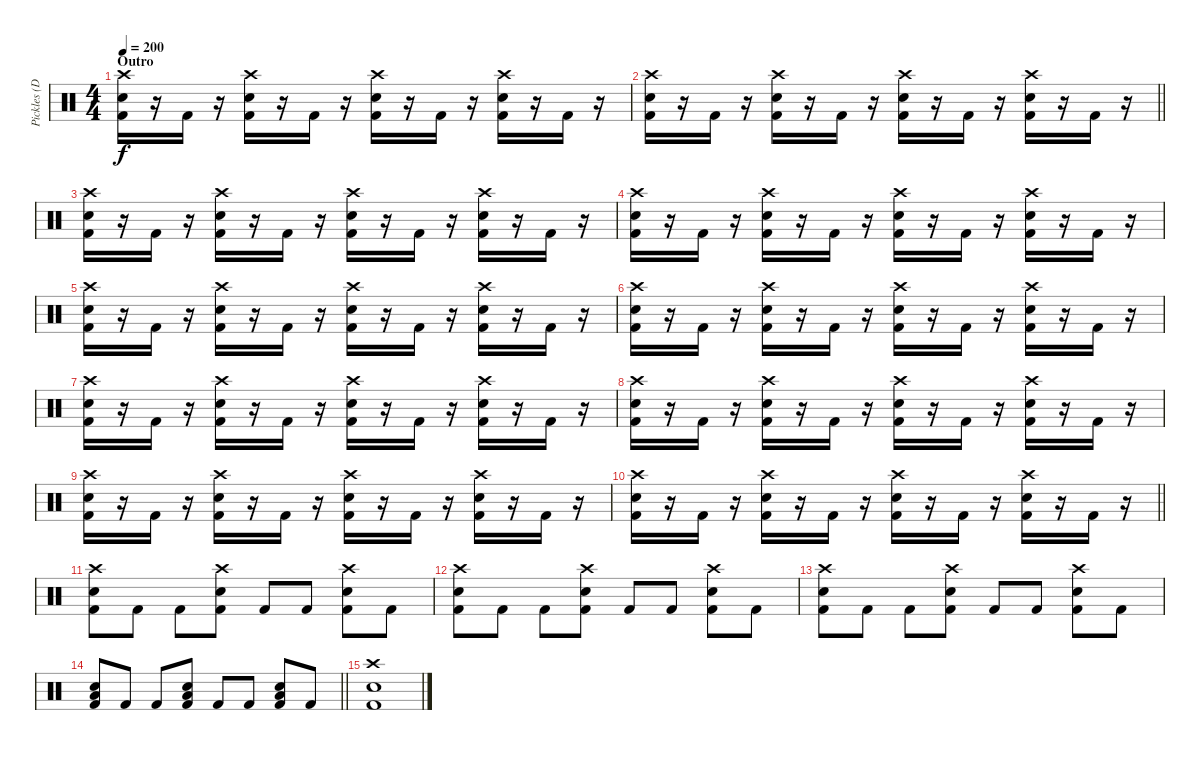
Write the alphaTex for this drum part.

\track ("Pickles (Drums)" "Pickles (D") {instrument percussion}
\staff {score}
\articulation defaults
\ts (4 4)
\section ("" "Outro")
\tempo 200
\clef neutral
\ks c
("Crash high (hit)" "Electric Snare (hit)" "Kick (hit) 2").16{dy f} r.16 "Kick (hit) 2".16 r.16 ("Crash high (hit)" "Electric Snare (hit)" "Kick (hit) 2").16 r.16 "Kick (hit) 2".16 r.16 ("Crash high (hit)" "Electric Snare (hit)" "Kick (hit) 2").16 r.16 "Kick (hit) 2".16 r.16 ("Crash high (hit)" "Electric Snare (hit)" "Kick (hit) 2").16 r.16 "Kick (hit) 2".16 r.16 |
\barLineRight lightlight
("Crash high (hit)" "Electric Snare (hit)" "Kick (hit) 2").16 r.16 "Kick (hit) 2".16 r.16 ("Crash high (hit)" "Electric Snare (hit)" "Kick (hit) 2").16 r.16 "Kick (hit) 2".16 r.16 ("Crash high (hit)" "Electric Snare (hit)" "Kick (hit) 2").16 r.16 "Kick (hit) 2".16 r.16 ("Crash high (hit)" "Electric Snare (hit)" "Kick (hit) 2").16 r.16 "Kick (hit) 2".16 r.16 |
("Crash high (hit)" "Electric Snare (hit)" "Kick (hit) 2").16 r.16 "Kick (hit) 2".16 r.16 ("Crash high (hit)" "Electric Snare (hit)" "Kick (hit) 2").16 r.16 "Kick (hit) 2".16 r.16 ("Crash high (hit)" "Electric Snare (hit)" "Kick (hit) 2").16 r.16 "Kick (hit) 2".16 r.16 ("Crash high (hit)" "Electric Snare (hit)" "Kick (hit) 2").16 r.16 "Kick (hit) 2".16 r.16 |
("Crash high (hit)" "Electric Snare (hit)" "Kick (hit) 2").16 r.16 "Kick (hit) 2".16 r.16 ("Crash high (hit)" "Electric Snare (hit)" "Kick (hit) 2").16 r.16 "Kick (hit) 2".16 r.16 ("Crash high (hit)" "Electric Snare (hit)" "Kick (hit) 2").16 r.16 "Kick (hit) 2".16 r.16 ("Crash high (hit)" "Electric Snare (hit)" "Kick (hit) 2").16 r.16 "Kick (hit) 2".16 r.16 |
("Crash high (hit)" "Electric Snare (hit)" "Kick (hit) 2").16 r.16 "Kick (hit) 2".16 r.16 ("Crash high (hit)" "Electric Snare (hit)" "Kick (hit) 2").16 r.16 "Kick (hit) 2".16 r.16 ("Crash high (hit)" "Electric Snare (hit)" "Kick (hit) 2").16 r.16 "Kick (hit) 2".16 r.16 ("Crash high (hit)" "Electric Snare (hit)" "Kick (hit) 2").16 r.16 "Kick (hit) 2".16 r.16 |
("Crash high (hit)" "Electric Snare (hit)" "Kick (hit) 2").16 r.16 "Kick (hit) 2".16 r.16 ("Crash high (hit)" "Electric Snare (hit)" "Kick (hit) 2").16 r.16 "Kick (hit) 2".16 r.16 ("Crash high (hit)" "Electric Snare (hit)" "Kick (hit) 2").16 r.16 "Kick (hit) 2".16 r.16 ("Crash high (hit)" "Electric Snare (hit)" "Kick (hit) 2").16 r.16 "Kick (hit) 2".16 r.16 |
("Crash high (hit)" "Electric Snare (hit)" "Kick (hit) 2").16 r.16 "Kick (hit) 2".16 r.16 ("Crash high (hit)" "Electric Snare (hit)" "Kick (hit) 2").16 r.16 "Kick (hit) 2".16 r.16 ("Crash high (hit)" "Electric Snare (hit)" "Kick (hit) 2").16 r.16 "Kick (hit) 2".16 r.16 ("Crash high (hit)" "Electric Snare (hit)" "Kick (hit) 2").16 r.16 "Kick (hit) 2".16 r.16 |
("Crash high (hit)" "Electric Snare (hit)" "Kick (hit) 2").16 r.16 "Kick (hit) 2".16 r.16 ("Crash high (hit)" "Electric Snare (hit)" "Kick (hit) 2").16 r.16 "Kick (hit) 2".16 r.16 ("Crash high (hit)" "Electric Snare (hit)" "Kick (hit) 2").16 r.16 "Kick (hit) 2".16 r.16 ("Crash high (hit)" "Electric Snare (hit)" "Kick (hit) 2").16 r.16 "Kick (hit) 2".16 r.16 |
("Crash high (hit)" "Electric Snare (hit)" "Kick (hit) 2").16 r.16 "Kick (hit) 2".16 r.16 ("Crash high (hit)" "Electric Snare (hit)" "Kick (hit) 2").16 r.16 "Kick (hit) 2".16 r.16 ("Crash high (hit)" "Electric Snare (hit)" "Kick (hit) 2").16 r.16 "Kick (hit) 2".16 r.16 ("Crash high (hit)" "Electric Snare (hit)" "Kick (hit) 2").16 r.16 "Kick (hit) 2".16 r.16 |
\barLineRight lightlight
("Crash high (hit)" "Electric Snare (hit)" "Kick (hit) 2").16 r.16 "Kick (hit) 2".16 r.16 ("Crash high (hit)" "Electric Snare (hit)" "Kick (hit) 2").16 r.16 "Kick (hit) 2".16 r.16 ("Crash high (hit)" "Electric Snare (hit)" "Kick (hit) 2").16 r.16 "Kick (hit) 2".16 r.16 ("Crash high (hit)" "Electric Snare (hit)" "Kick (hit) 2").16 r.16 "Kick (hit) 2".16 r.16 |
("Crash high (hit)" "Electric Snare (hit)" "Kick (hit) 2").8 "Kick (hit) 2".8 "Kick (hit) 2".8 ("Crash high (hit)" "Electric Snare (hit)" "Kick (hit) 2").8 "Kick (hit) 2".8 "Kick (hit) 2".8 ("Crash high (hit)" "Electric Snare (hit)" "Kick (hit) 2").8 "Kick (hit) 2".8 |
("Crash high (hit)" "Electric Snare (hit)" "Kick (hit) 2").8 "Kick (hit) 2".8 "Kick (hit) 2".8 ("Crash high (hit)" "Electric Snare (hit)" "Kick (hit) 2").8 "Kick (hit) 2".8 "Kick (hit) 2".8 ("Crash high (hit)" "Electric Snare (hit)" "Kick (hit) 2").8 "Kick (hit) 2".8 |
("Crash high (hit)" "Electric Snare (hit)" "Kick (hit) 2").8 "Kick (hit) 2".8 "Kick (hit) 2".8 ("Crash high (hit)" "Electric Snare (hit)" "Kick (hit) 2").8 "Kick (hit) 2".8 "Kick (hit) 2".8 ("Crash high (hit)" "Electric Snare (hit)" "Kick (hit) 2").8 "Kick (hit) 2".8 |
\barLineRight lightlight
("Low Floor Tom (hit)" "Electric Snare (hit)" "Kick (hit) 2").8 "Kick (hit) 2".8 "Kick (hit) 2".8 ("Low Floor Tom (hit)" "Electric Snare (hit)" "Kick (hit) 2").8 "Kick (hit) 2".8 "Kick (hit) 2".8 ("Low Floor Tom (hit)" "Electric Snare (hit)" "Kick (hit) 2").8 "Kick (hit) 2".8 |
("Crash high (hit)" "Electric Snare (hit)" "Kick (hit) 2").1
